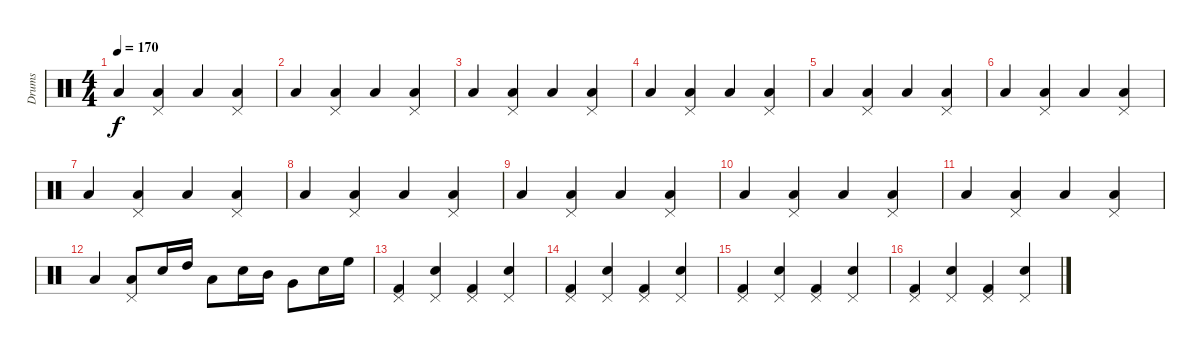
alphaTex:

\track ("Drums" "Drums") {instrument percussion}
\staff {score}
\articulation defaults
\ts (4 4)
\tempo 170
\clef neutral
\ks c "Low Floor Tom (hit)".4{dy f}
("Pedal Hi-Hat (hit)" "Low Floor Tom (hit)").4 "Low Floor Tom (hit)".4 ("Pedal Hi-Hat (hit)" "Low Floor Tom (hit)").4 |
"Low Floor Tom (hit)".4 ("Pedal Hi-Hat (hit)" "Low Floor Tom (hit)").4 "Low Floor Tom (hit)".4 ("Pedal Hi-Hat (hit)" "Low Floor Tom (hit)").4 |
"Low Floor Tom (hit)".4 ("Pedal Hi-Hat (hit)" "Low Floor Tom (hit)").4 "Low Floor Tom (hit)".4 ("Pedal Hi-Hat (hit)" "Low Floor Tom (hit)").4 |
"Low Floor Tom (hit)".4 ("Pedal Hi-Hat (hit)" "Low Floor Tom (hit)").4 "Low Floor Tom (hit)".4 ("Pedal Hi-Hat (hit)" "Low Floor Tom (hit)").4 |
"Low Floor Tom (hit)".4 ("Pedal Hi-Hat (hit)" "Low Floor Tom (hit)").4 "Low Floor Tom (hit)".4 ("Pedal Hi-Hat (hit)" "Low Floor Tom (hit)").4 |
"Low Floor Tom (hit)".4 ("Pedal Hi-Hat (hit)" "Low Floor Tom (hit)").4 "Low Floor Tom (hit)".4 ("Pedal Hi-Hat (hit)" "Low Floor Tom (hit)").4 |
"Low Floor Tom (hit)".4 ("Pedal Hi-Hat (hit)" "Low Floor Tom (hit)").4 "Low Floor Tom (hit)".4 ("Pedal Hi-Hat (hit)" "Low Floor Tom (hit)").4 |
"Low Floor Tom (hit)".4 ("Pedal Hi-Hat (hit)" "Low Floor Tom (hit)").4 "Low Floor Tom (hit)".4 ("Pedal Hi-Hat (hit)" "Low Floor Tom (hit)").4 |
"Low Floor Tom (hit)".4 ("Pedal Hi-Hat (hit)" "Low Floor Tom (hit)").4 "Low Floor Tom (hit)".4 ("Pedal Hi-Hat (hit)" "Low Floor Tom (hit)").4 |
"Low Floor Tom (hit)".4 ("Pedal Hi-Hat (hit)" "Low Floor Tom (hit)").4 "Low Floor Tom (hit)".4 ("Pedal Hi-Hat (hit)" "Low Floor Tom (hit)").4 |
"Low Floor Tom (hit)".4 ("Pedal Hi-Hat (hit)" "Low Floor Tom (hit)").4 "Low Floor Tom (hit)".4 ("Pedal Hi-Hat (hit)" "Low Floor Tom (hit)").4 |
"Low Floor Tom (hit)".4 ("Pedal Hi-Hat (hit)" "Low Floor Tom (hit)").8 "Snare (hit) 2".16 "High Tom (hit)".16 "Low Tom (hit)".8 "Snare (hit) 2".16 "Mid Tom (hit)".16 "Very Low Tom (hit)".8 "Snare (hit) 2".16 "High Floor Tom (hit)".16 |
("Pedal Hi-Hat (hit)" "Kick (hit) 2").4 ("Pedal Hi-Hat (hit)" "Snare (hit) 2").4 ("Pedal Hi-Hat (hit)" "Kick (hit) 2").4 ("Pedal Hi-Hat (hit)" "Snare (hit) 2").4 |
("Pedal Hi-Hat (hit)" "Kick (hit) 2").4 ("Pedal Hi-Hat (hit)" "Snare (hit) 2").4 ("Pedal Hi-Hat (hit)" "Kick (hit) 2").4 ("Pedal Hi-Hat (hit)" "Snare (hit) 2").4 |
("Pedal Hi-Hat (hit)" "Kick (hit) 2").4 ("Pedal Hi-Hat (hit)" "Snare (hit) 2").4 ("Pedal Hi-Hat (hit)" "Kick (hit) 2").4 ("Pedal Hi-Hat (hit)" "Snare (hit) 2").4 |
("Pedal Hi-Hat (hit)" "Kick (hit) 2").4 ("Pedal Hi-Hat (hit)" "Snare (hit) 2").4 ("Pedal Hi-Hat (hit)" "Kick (hit) 2").4 ("Pedal Hi-Hat (hit)" "Snare (hit) 2").4
